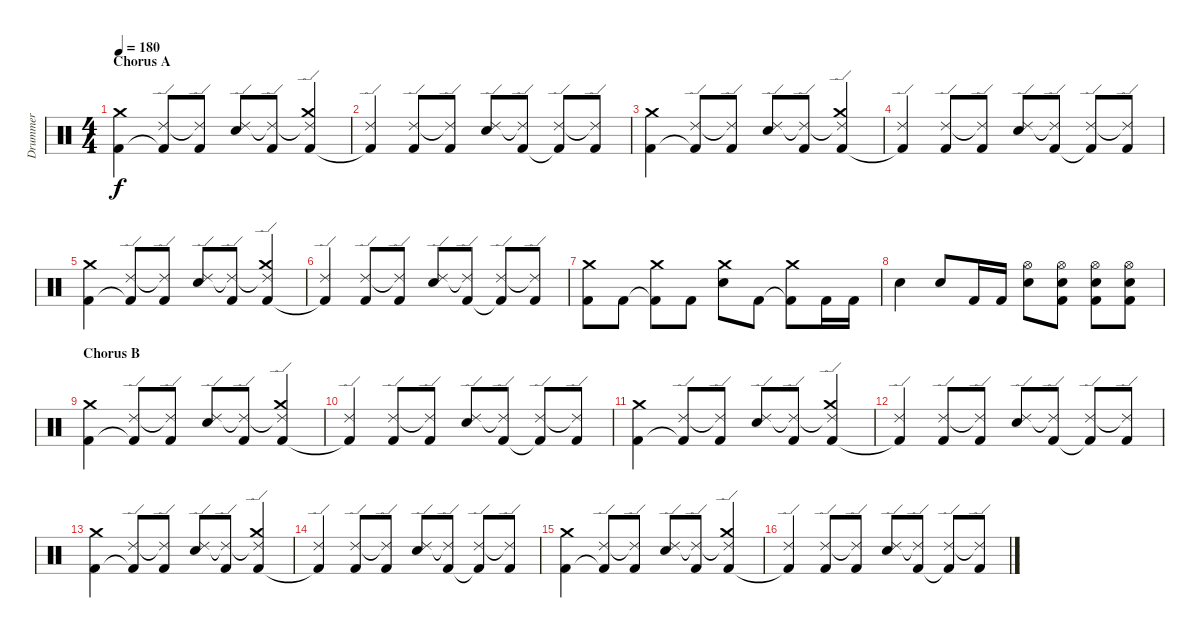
\track ("Drummer" "Drummer") {instrument percussion}
\staff {score}
\articulation defaults
\ts (4 4)
\section ("" "Chorus A")
\tempo 180
\clef neutral
\ks c
("Kick (hit) 2" "Crash medium (hit)").4{dy f} ("Kick (hit) 2"{t} "Ride (edge) 2").8 ("Kick (hit) 2" "Ride (edge) 2"{t}).8 ("Snare (hit) 2" "Ride (edge) 2").8 ("Kick (hit) 2" "Ride (edge) 2"{t}).8 ("Kick (hit) 2" "Ride (edge) 2"{t} "Crash medium (hit)").4 |
("Kick (hit) 2"{t} "Ride (edge) 2").4 ("Kick (hit) 2" "Ride (edge) 2").8 ("Kick (hit) 2" "Ride (edge) 2"{t}).8 ("Snare (hit) 2" "Ride (edge) 2").8 ("Kick (hit) 2" "Ride (edge) 2"{t}).8 ("Kick (hit) 2"{t} "Ride (edge) 2").8 ("Kick (hit) 2" "Ride (edge) 2"{t}).8 |
("Kick (hit) 2" "Crash medium (hit)").4 ("Kick (hit) 2"{t} "Ride (edge) 2").8 ("Kick (hit) 2" "Ride (edge) 2"{t}).8 ("Snare (hit) 2" "Ride (edge) 2").8 ("Kick (hit) 2" "Ride (edge) 2"{t}).8 ("Kick (hit) 2" "Ride (edge) 2"{t} "Crash medium (hit)").4 |
("Kick (hit) 2"{t} "Ride (edge) 2").4 ("Kick (hit) 2" "Ride (edge) 2").8 ("Kick (hit) 2" "Ride (edge) 2"{t}).8 ("Snare (hit) 2" "Ride (edge) 2").8 ("Kick (hit) 2" "Ride (edge) 2"{t}).8 ("Kick (hit) 2"{t} "Ride (edge) 2").8 ("Kick (hit) 2" "Ride (edge) 2"{t}).8 |
("Kick (hit) 2" "Crash medium (hit)").4 ("Kick (hit) 2"{t} "Ride (edge) 2").8 ("Kick (hit) 2" "Ride (edge) 2"{t}).8 ("Snare (hit) 2" "Ride (edge) 2").8 ("Kick (hit) 2" "Ride (edge) 2"{t}).8 ("Kick (hit) 2" "Ride (edge) 2"{t} "Crash medium (hit)").4 |
("Kick (hit) 2"{t} "Ride (edge) 2").4 ("Kick (hit) 2" "Ride (edge) 2").8 ("Kick (hit) 2" "Ride (edge) 2"{t}).8 ("Snare (hit) 2" "Ride (edge) 2").8 ("Kick (hit) 2" "Ride (edge) 2"{t}).8 ("Kick (hit) 2"{t} "Ride (edge) 2").8 ("Kick (hit) 2" "Ride (edge) 2"{t}).8 |
("Kick (hit) 2" "Crash medium (hit)").8 "Kick (hit) 2".8 ("Kick (hit) 2"{t} "Crash medium (hit)").8 "Kick (hit) 2".8 ("Snare (hit) 2" "Crash medium (hit)").8 "Kick (hit) 2".8 ("Kick (hit) 2"{t} "Crash medium (hit)").8 "Kick (hit) 2".16 "Kick (hit) 2".16 |
"Electric Snare (hit)".4 "Electric Snare (hit)".8 "Kick (hit) 2".16 "Kick (hit) 2".16 ("Electric Snare (hit)" "Hi-Hat (open)").8 ("Kick (hit) 2" "Electric Snare (hit)" "Hi-Hat (open)").8 ("Kick (hit) 2" "Electric Snare (hit)" "Hi-Hat (open)").8 ("Kick (hit) 2" "Electric Snare (hit)" "Hi-Hat (open)").8 |
\section ("" "Chorus B")
("Kick (hit) 2" "Crash medium (hit)").4 ("Kick (hit) 2"{t} "Ride (edge) 2").8 ("Kick (hit) 2" "Ride (edge) 2"{t}).8 ("Snare (hit) 2" "Ride (edge) 2").8 ("Kick (hit) 2" "Ride (edge) 2"{t}).8 ("Kick (hit) 2" "Ride (edge) 2"{t} "Crash medium (hit)").4 |
("Kick (hit) 2"{t} "Ride (edge) 2").4 ("Kick (hit) 2" "Ride (edge) 2").8 ("Kick (hit) 2" "Ride (edge) 2"{t}).8 ("Snare (hit) 2" "Ride (edge) 2").8 ("Kick (hit) 2" "Ride (edge) 2"{t}).8 ("Kick (hit) 2"{t} "Ride (edge) 2").8 ("Kick (hit) 2" "Ride (edge) 2"{t}).8 |
("Kick (hit) 2" "Crash medium (hit)").4 ("Kick (hit) 2"{t} "Ride (edge) 2").8 ("Kick (hit) 2" "Ride (edge) 2"{t}).8 ("Snare (hit) 2" "Ride (edge) 2").8 ("Kick (hit) 2" "Ride (edge) 2"{t}).8 ("Kick (hit) 2" "Ride (edge) 2"{t} "Crash medium (hit)").4 |
("Kick (hit) 2"{t} "Ride (edge) 2").4 ("Kick (hit) 2" "Ride (edge) 2").8 ("Kick (hit) 2" "Ride (edge) 2"{t}).8 ("Snare (hit) 2" "Ride (edge) 2").8 ("Kick (hit) 2" "Ride (edge) 2"{t}).8 ("Kick (hit) 2"{t} "Ride (edge) 2").8 ("Kick (hit) 2" "Ride (edge) 2"{t}).8 |
("Kick (hit) 2" "Crash medium (hit)").4 ("Kick (hit) 2"{t} "Ride (edge) 2").8 ("Kick (hit) 2" "Ride (edge) 2"{t}).8 ("Snare (hit) 2" "Ride (edge) 2").8 ("Kick (hit) 2" "Ride (edge) 2"{t}).8 ("Kick (hit) 2" "Ride (edge) 2"{t} "Crash medium (hit)").4 |
("Kick (hit) 2"{t} "Ride (edge) 2").4 ("Kick (hit) 2" "Ride (edge) 2").8 ("Kick (hit) 2" "Ride (edge) 2"{t}).8 ("Snare (hit) 2" "Ride (edge) 2").8 ("Kick (hit) 2" "Ride (edge) 2"{t}).8 ("Kick (hit) 2"{t} "Ride (edge) 2").8 ("Kick (hit) 2" "Ride (edge) 2"{t}).8 |
("Kick (hit) 2" "Crash medium (hit)").4 ("Kick (hit) 2"{t} "Ride (edge) 2").8 ("Kick (hit) 2" "Ride (edge) 2"{t}).8 ("Snare (hit) 2" "Ride (edge) 2").8 ("Kick (hit) 2" "Ride (edge) 2"{t}).8 ("Kick (hit) 2" "Ride (edge) 2"{t} "Crash medium (hit)").4 |
("Kick (hit) 2"{t} "Ride (edge) 2").4 ("Kick (hit) 2" "Ride (edge) 2").8 ("Kick (hit) 2" "Ride (edge) 2"{t}).8 ("Snare (hit) 2" "Ride (edge) 2").8 ("Kick (hit) 2" "Ride (edge) 2"{t}).8 ("Kick (hit) 2"{t} "Ride (edge) 2").8 ("Kick (hit) 2" "Ride (edge) 2"{t}).8
